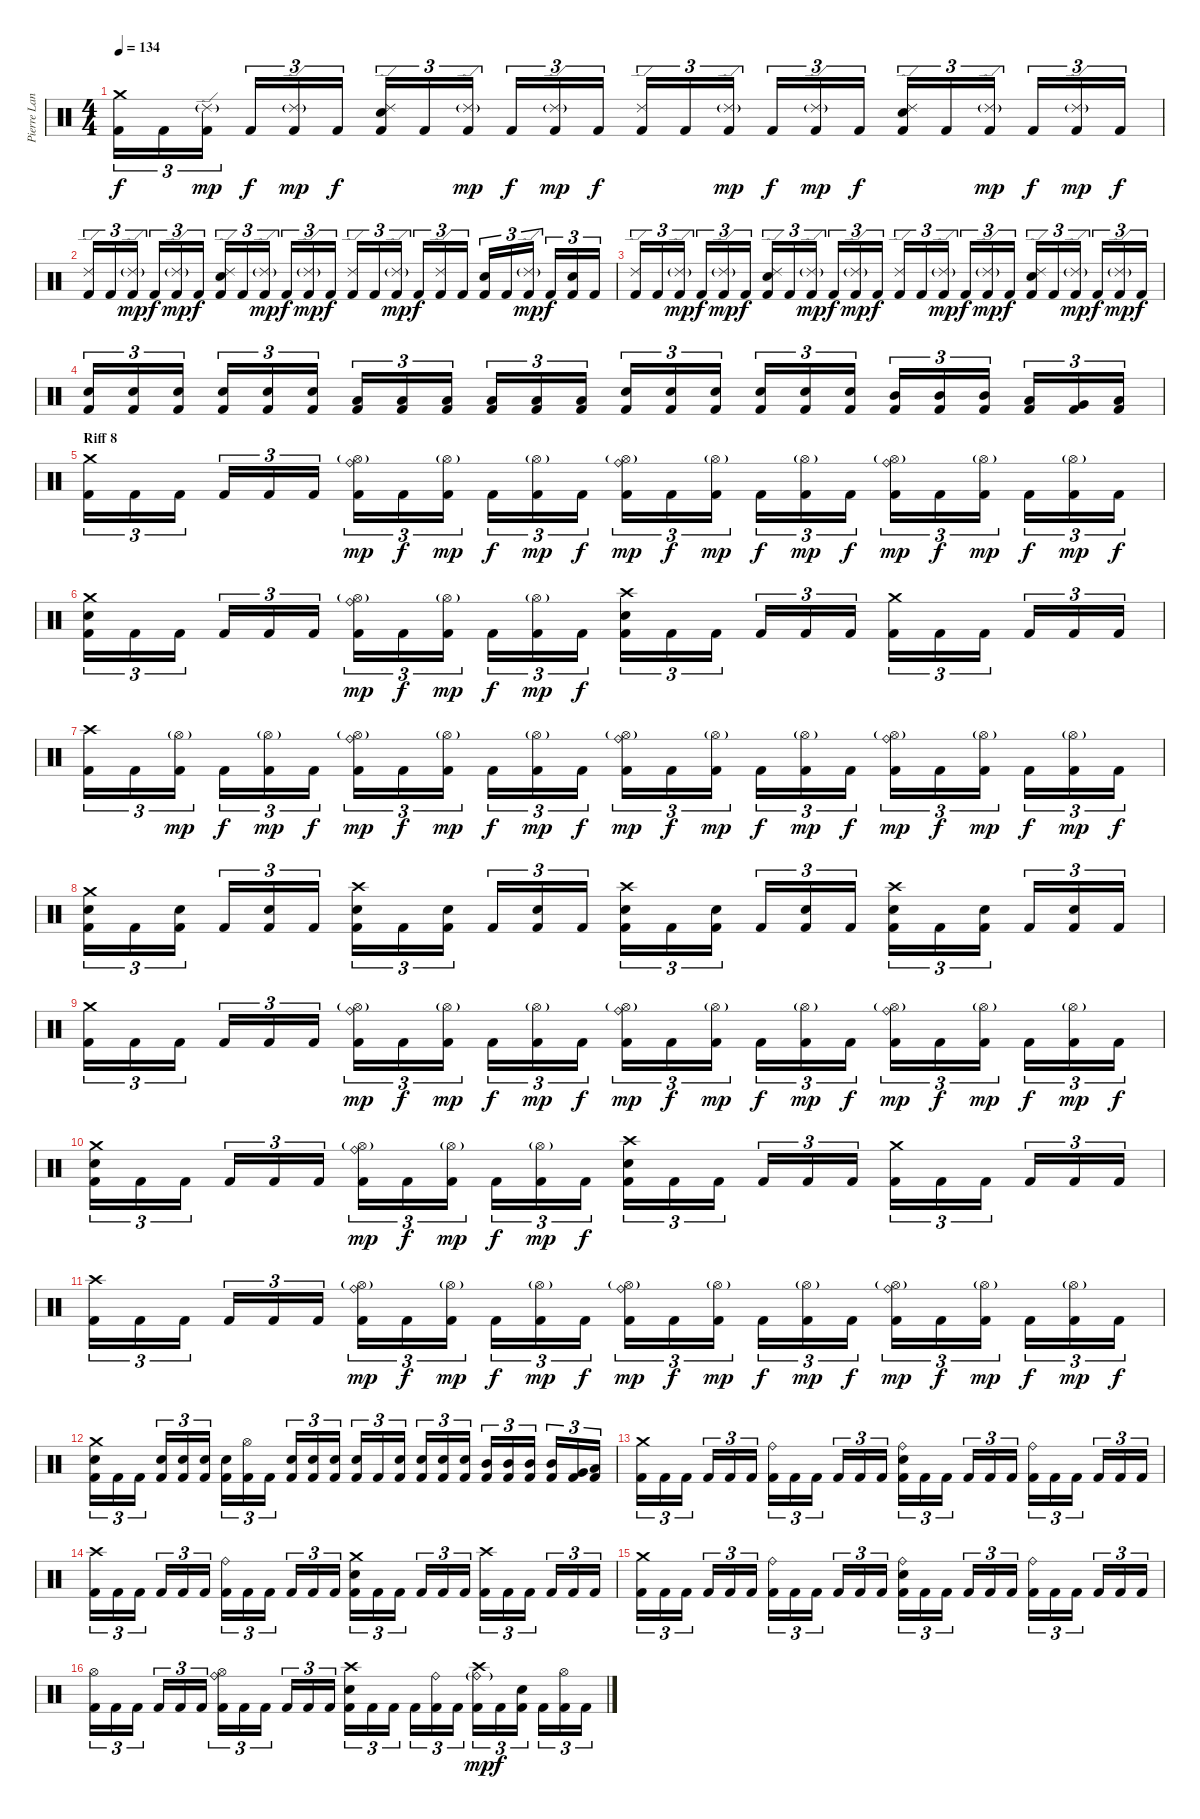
\track ("Pierre Langlois (Drums)" "Pierre Lan") {instrument percussion}
\staff {score}
\articulation defaults
\ts (4 4)
\tempo 134
\clef neutral
\ks c
("Crash medium (hit)" "Kick (hit) 2").16{tu (3 2) dy f} "Kick (hit) 2".16{tu (3 2)} ("Ride (edge) 2"{g} "Kick (hit) 2").16{tu (3 2) dy mp} "Kick (hit) 2".16{tu (3 2) dy f} ("Ride (edge) 2"{g} "Kick (hit) 2").16{tu (3 2) dy mp} "Kick (hit) 2".16{tu (3 2) dy f} ("Ride (edge) 2" "Snare (hit) 2" "Kick (hit) 2").16{tu (3 2)} "Kick (hit) 2".16{tu (3 2)} ("Ride (edge) 2"{g} "Kick (hit) 2").16{tu (3 2) dy mp} "Kick (hit) 2".16{tu (3 2) dy f} ("Ride (edge) 2"{g} "Kick (hit) 2").16{tu (3 2) dy mp} "Kick (hit) 2".16{tu (3 2) dy f} ("Ride (edge) 2" "Kick (hit) 2").16{tu (3 2)} "Kick (hit) 2".16{tu (3 2)} ("Ride (edge) 2"{g} "Kick (hit) 2").16{tu (3 2) dy mp} "Kick (hit) 2".16{tu (3 2) dy f} ("Ride (edge) 2"{g} "Kick (hit) 2").16{tu (3 2) dy mp} "Kick (hit) 2".16{tu (3 2) dy f} ("Snare (hit) 2" "Ride (edge) 2" "Kick (hit) 2").16{tu (3 2)} "Kick (hit) 2".16{tu (3 2)} ("Ride (edge) 2"{g} "Kick (hit) 2").16{tu (3 2) dy mp} "Kick (hit) 2".16{tu (3 2) dy f} ("Ride (edge) 2"{g} "Kick (hit) 2").16{tu (3 2) dy mp} "Kick (hit) 2".16{tu (3 2) dy f} |
("Ride (edge) 2" "Kick (hit) 2").16{tu (3 2)} "Kick (hit) 2".16{tu (3 2)} ("Ride (edge) 2"{g} "Kick (hit) 2").16{tu (3 2) dy mp} "Kick (hit) 2".16{tu (3 2) dy f} ("Ride (edge) 2"{g} "Kick (hit) 2").16{tu (3 2) dy mp} "Kick (hit) 2".16{tu (3 2) dy f} ("Ride (edge) 2" "Snare (hit) 2" "Kick (hit) 2").16{tu (3 2)} "Kick (hit) 2".16{tu (3 2)} ("Ride (edge) 2"{g} "Kick (hit) 2").16{tu (3 2) dy mp} "Kick (hit) 2".16{tu (3 2) dy f} ("Ride (edge) 2"{g} "Kick (hit) 2").16{tu (3 2) dy mp} "Kick (hit) 2".16{tu (3 2) dy f} ("Ride (edge) 2" "Kick (hit) 2").16{tu (3 2)} "Kick (hit) 2".16{tu (3 2)} ("Ride (edge) 2"{g} "Kick (hit) 2").16{tu (3 2) dy mp} "Kick (hit) 2".16{tu (3 2) dy f} ("Ride (edge) 2" "Kick (hit) 2").16{tu (3 2)} "Kick (hit) 2".16{tu (3 2)} ("Snare (hit) 2" "Kick (hit) 2").16{tu (3 2)} "Kick (hit) 2".16{tu (3 2)} ("Ride (edge) 2"{g} "Kick (hit) 2").16{tu (3 2) dy mp} "Kick (hit) 2".16{tu (3 2) dy f} ("Snare (hit) 2" "Kick (hit) 2").16{tu (3 2)} "Kick (hit) 2".16{tu (3 2)} |
("Ride (edge) 2" "Kick (hit) 2").16{tu (3 2)} "Kick (hit) 2".16{tu (3 2)} ("Ride (edge) 2"{g} "Kick (hit) 2").16{tu (3 2) dy mp} "Kick (hit) 2".16{tu (3 2) dy f} ("Ride (edge) 2"{g} "Kick (hit) 2").16{tu (3 2) dy mp} "Kick (hit) 2".16{tu (3 2) dy f} ("Ride (edge) 2" "Snare (hit) 2" "Kick (hit) 2").16{tu (3 2)} "Kick (hit) 2".16{tu (3 2)} ("Ride (edge) 2"{g} "Kick (hit) 2").16{tu (3 2) dy mp} "Kick (hit) 2".16{tu (3 2) dy f} ("Ride (edge) 2"{g} "Kick (hit) 2").16{tu (3 2) dy mp} "Kick (hit) 2".16{tu (3 2) dy f} ("Ride (edge) 2" "Kick (hit) 2").16{tu (3 2)} "Kick (hit) 2".16{tu (3 2)} ("Ride (edge) 2"{g} "Kick (hit) 2").16{tu (3 2) dy mp} "Kick (hit) 2".16{tu (3 2) dy f} ("Ride (edge) 2"{g} "Kick (hit) 2").16{tu (3 2) dy mp} "Kick (hit) 2".16{tu (3 2) dy f} ("Snare (hit) 2" "Ride (edge) 2" "Kick (hit) 2").16{tu (3 2)} "Kick (hit) 2".16{tu (3 2)} ("Ride (edge) 2"{g} "Kick (hit) 2").16{tu (3 2) dy mp} "Kick (hit) 2".16{tu (3 2) dy f} ("Ride (edge) 2"{g} "Kick (hit) 2").16{tu (3 2) dy mp} "Kick (hit) 2".16{tu (3 2) dy f} |
("Snare (hit) 2" "Kick (hit) 2").16{tu (3 2)} ("Snare (hit) 2" "Kick (hit) 2").16{tu (3 2)} ("Snare (hit) 2" "Kick (hit) 2").16{tu (3 2)} ("Snare (hit) 2" "Kick (hit) 2").16{tu (3 2)} ("Snare (hit) 2" "Kick (hit) 2").16{tu (3 2)} ("Snare (hit) 2" "Kick (hit) 2").16{tu (3 2)} ("Low Tom (hit)" "Kick (hit) 2").16{tu (3 2)} ("Low Tom (hit)" "Kick (hit) 2").16{tu (3 2)} ("Low Tom (hit)" "Kick (hit) 2").16{tu (3 2)} ("Low Tom (hit)" "Kick (hit) 2").16{tu (3 2)} ("Low Tom (hit)" "Kick (hit) 2").16{tu (3 2)} ("Low Tom (hit)" "Kick (hit) 2").16{tu (3 2)} ("Snare (hit) 2" "Kick (hit) 2").16{tu (3 2)} ("Snare (hit) 2" "Kick (hit) 2").16{tu (3 2)} ("Snare (hit) 2" "Kick (hit) 2").16{tu (3 2)} ("Snare (hit) 2" "Kick (hit) 2").16{tu (3 2)} ("Snare (hit) 2" "Kick (hit) 2").16{tu (3 2)} ("Snare (hit) 2" "Kick (hit) 2").16{tu (3 2)} ("Mid Tom (hit)" "Kick (hit) 2").16{tu (3 2)} ("Mid Tom (hit)" "Kick (hit) 2").16{tu (3 2)} ("Mid Tom (hit)" "Kick (hit) 2").16{tu (3 2)} ("Low Tom (hit)" "Kick (hit) 2").16{tu (3 2)} ("Very Low Tom (hit)" "Kick (hit) 2").16{tu (3 2)} ("Low Floor Tom (hit)" "Kick (hit) 2").16{tu (3 2)} |
\section ("" "Riff 8")
("Crash medium (hit)" "Kick (hit) 2").16{tu (3 2)} "Kick (hit) 2".16{tu (3 2)} "Kick (hit) 2".16{tu (3 2)} "Kick (hit) 2".16{tu (3 2)} "Kick (hit) 2".16{tu (3 2)} "Kick (hit) 2".16{tu (3 2)} ("Ride (bell)" "Hi-Hat (open)"{g} "Kick (hit) 2").16{tu (3 2) dy mp} "Kick (hit) 2".16{tu (3 2) dy f} ("Hi-Hat (open)"{g} "Kick (hit) 2").16{tu (3 2) dy mp} "Kick (hit) 2".16{tu (3 2) dy f} ("Hi-Hat (open)"{g} "Kick (hit) 2").16{tu (3 2) dy mp} "Kick (hit) 2".16{tu (3 2) dy f} ("Ride (bell)" "Hi-Hat (open)"{g} "Kick (hit) 2").16{tu (3 2) dy mp} "Kick (hit) 2".16{tu (3 2) dy f} ("Hi-Hat (open)"{g} "Kick (hit) 2").16{tu (3 2) dy mp} "Kick (hit) 2".16{tu (3 2) dy f} ("Hi-Hat (open)"{g} "Kick (hit) 2").16{tu (3 2) dy mp} "Kick (hit) 2".16{tu (3 2) dy f} ("Ride (bell)" "Hi-Hat (open)"{g} "Kick (hit) 2").16{tu (3 2) dy mp} "Kick (hit) 2".16{tu (3 2) dy f} ("Hi-Hat (open)"{g} "Kick (hit) 2").16{tu (3 2) dy mp} "Kick (hit) 2".16{tu (3 2) dy f} ("Hi-Hat (open)"{g} "Kick (hit) 2").16{tu (3 2) dy mp} "Kick (hit) 2".16{tu (3 2) dy f} |
("Crash medium (hit)" "Snare (hit) 2" "Kick (hit) 2").16{tu (3 2)} "Kick (hit) 2".16{tu (3 2)} "Kick (hit) 2".16{tu (3 2)} "Kick (hit) 2".16{tu (3 2)} "Kick (hit) 2".16{tu (3 2)} "Kick (hit) 2".16{tu (3 2)} ("Ride (bell)" "Hi-Hat (open)"{g} "Kick (hit) 2").16{tu (3 2) dy mp} "Kick (hit) 2".16{tu (3 2) dy f} ("Hi-Hat (open)"{g} "Kick (hit) 2").16{tu (3 2) dy mp} "Kick (hit) 2".16{tu (3 2) dy f} ("Hi-Hat (open)"{g} "Kick (hit) 2").16{tu (3 2) dy mp} "Kick (hit) 2".16{tu (3 2) dy f} ("Crash high (hit)" "Snare (hit) 2" "Kick (hit) 2").16{tu (3 2)} "Kick (hit) 2".16{tu (3 2)} "Kick (hit) 2".16{tu (3 2)} "Kick (hit) 2".16{tu (3 2)} "Kick (hit) 2".16{tu (3 2)} "Kick (hit) 2".16{tu (3 2)} ("Crash medium (hit)" "Kick (hit) 2").16{tu (3 2)} "Kick (hit) 2".16{tu (3 2)} "Kick (hit) 2".16{tu (3 2)} "Kick (hit) 2".16{tu (3 2)} "Kick (hit) 2".16{tu (3 2)} "Kick (hit) 2".16{tu (3 2)} |
("Crash high (hit)" "Kick (hit) 2").16{tu (3 2)} "Kick (hit) 2".16{tu (3 2)} ("Hi-Hat (open)"{g} "Kick (hit) 2").16{tu (3 2) dy mp} "Kick (hit) 2".16{tu (3 2) dy f} ("Hi-Hat (open)"{g} "Kick (hit) 2").16{tu (3 2) dy mp} "Kick (hit) 2".16{tu (3 2) dy f} ("Ride (bell)" "Hi-Hat (open)"{g} "Kick (hit) 2").16{tu (3 2) dy mp} "Kick (hit) 2".16{tu (3 2) dy f} ("Hi-Hat (open)"{g} "Kick (hit) 2").16{tu (3 2) dy mp} "Kick (hit) 2".16{tu (3 2) dy f} ("Hi-Hat (open)"{g} "Kick (hit) 2").16{tu (3 2) dy mp} "Kick (hit) 2".16{tu (3 2) dy f} ("Ride (bell)" "Hi-Hat (open)"{g} "Kick (hit) 2").16{tu (3 2) dy mp} "Kick (hit) 2".16{tu (3 2) dy f} ("Hi-Hat (open)"{g} "Kick (hit) 2").16{tu (3 2) dy mp} "Kick (hit) 2".16{tu (3 2) dy f} ("Hi-Hat (open)"{g} "Kick (hit) 2").16{tu (3 2) dy mp} "Kick (hit) 2".16{tu (3 2) dy f} ("Ride (bell)" "Hi-Hat (open)"{g} "Kick (hit) 2").16{tu (3 2) dy mp} "Kick (hit) 2".16{tu (3 2) dy f} ("Hi-Hat (open)"{g} "Kick (hit) 2").16{tu (3 2) dy mp} "Kick (hit) 2".16{tu (3 2) dy f} ("Hi-Hat (open)"{g} "Kick (hit) 2").16{tu (3 2) dy mp} "Kick (hit) 2".16{tu (3 2) dy f} |
("Snare (hit) 2" "Crash medium (hit)" "Kick (hit) 2").16{tu (3 2)} "Kick (hit) 2".16{tu (3 2)} ("Snare (hit) 2" "Kick (hit) 2").16{tu (3 2)} "Kick (hit) 2".16{tu (3 2)} ("Snare (hit) 2" "Kick (hit) 2").16{tu (3 2)} "Kick (hit) 2".16{tu (3 2)} ("Crash high (hit)" "Snare (hit) 2" "Kick (hit) 2").16{tu (3 2)} "Kick (hit) 2".16{tu (3 2)} ("Snare (hit) 2" "Kick (hit) 2").16{tu (3 2)} "Kick (hit) 2".16{tu (3 2)} ("Snare (hit) 2" "Kick (hit) 2").16{tu (3 2)} "Kick (hit) 2".16{tu (3 2)} ("Snare (hit) 2" "Crash high (hit)" "Kick (hit) 2").16{tu (3 2)} "Kick (hit) 2".16{tu (3 2)} ("Snare (hit) 2" "Kick (hit) 2").16{tu (3 2)} "Kick (hit) 2".16{tu (3 2)} ("Snare (hit) 2" "Kick (hit) 2").16{tu (3 2)} "Kick (hit) 2".16{tu (3 2)} ("Snare (hit) 2" "Crash high (hit)" "Kick (hit) 2").16{tu (3 2)} "Kick (hit) 2".16{tu (3 2)} ("Snare (hit) 2" "Kick (hit) 2").16{tu (3 2)} "Kick (hit) 2".16{tu (3 2)} ("Snare (hit) 2" "Kick (hit) 2").16{tu (3 2)} "Kick (hit) 2".16{tu (3 2)} |
("Crash medium (hit)" "Kick (hit) 2").16{tu (3 2)} "Kick (hit) 2".16{tu (3 2)} "Kick (hit) 2".16{tu (3 2)} "Kick (hit) 2".16{tu (3 2)} "Kick (hit) 2".16{tu (3 2)} "Kick (hit) 2".16{tu (3 2)} ("Ride (bell)" "Hi-Hat (open)"{g} "Kick (hit) 2").16{tu (3 2) dy mp} "Kick (hit) 2".16{tu (3 2) dy f} ("Hi-Hat (open)"{g} "Kick (hit) 2").16{tu (3 2) dy mp} "Kick (hit) 2".16{tu (3 2) dy f} ("Hi-Hat (open)"{g} "Kick (hit) 2").16{tu (3 2) dy mp} "Kick (hit) 2".16{tu (3 2) dy f} ("Ride (bell)" "Hi-Hat (open)"{g} "Kick (hit) 2").16{tu (3 2) dy mp} "Kick (hit) 2".16{tu (3 2) dy f} ("Hi-Hat (open)"{g} "Kick (hit) 2").16{tu (3 2) dy mp} "Kick (hit) 2".16{tu (3 2) dy f} ("Hi-Hat (open)"{g} "Kick (hit) 2").16{tu (3 2) dy mp} "Kick (hit) 2".16{tu (3 2) dy f} ("Ride (bell)" "Hi-Hat (open)"{g} "Kick (hit) 2").16{tu (3 2) dy mp} "Kick (hit) 2".16{tu (3 2) dy f} ("Hi-Hat (open)"{g} "Kick (hit) 2").16{tu (3 2) dy mp} "Kick (hit) 2".16{tu (3 2) dy f} ("Hi-Hat (open)"{g} "Kick (hit) 2").16{tu (3 2) dy mp} "Kick (hit) 2".16{tu (3 2) dy f} |
("Crash medium (hit)" "Snare (hit) 2" "Kick (hit) 2").16{tu (3 2)} "Kick (hit) 2".16{tu (3 2)} "Kick (hit) 2".16{tu (3 2)} "Kick (hit) 2".16{tu (3 2)} "Kick (hit) 2".16{tu (3 2)} "Kick (hit) 2".16{tu (3 2)} ("Ride (bell)" "Hi-Hat (open)"{g} "Kick (hit) 2").16{tu (3 2) dy mp} "Kick (hit) 2".16{tu (3 2) dy f} ("Hi-Hat (open)"{g} "Kick (hit) 2").16{tu (3 2) dy mp} "Kick (hit) 2".16{tu (3 2) dy f} ("Hi-Hat (open)"{g} "Kick (hit) 2").16{tu (3 2) dy mp} "Kick (hit) 2".16{tu (3 2) dy f} ("Crash high (hit)" "Snare (hit) 2" "Kick (hit) 2").16{tu (3 2)} "Kick (hit) 2".16{tu (3 2)} "Kick (hit) 2".16{tu (3 2)} "Kick (hit) 2".16{tu (3 2)} "Kick (hit) 2".16{tu (3 2)} "Kick (hit) 2".16{tu (3 2)} ("Crash medium (hit)" "Kick (hit) 2").16{tu (3 2)} "Kick (hit) 2".16{tu (3 2)} "Kick (hit) 2".16{tu (3 2)} "Kick (hit) 2".16{tu (3 2)} "Kick (hit) 2".16{tu (3 2)} "Kick (hit) 2".16{tu (3 2)} |
("Crash high (hit)" "Kick (hit) 2").16{tu (3 2)} "Kick (hit) 2".16{tu (3 2)} "Kick (hit) 2".16{tu (3 2)} "Kick (hit) 2".16{tu (3 2)} "Kick (hit) 2".16{tu (3 2)} "Kick (hit) 2".16{tu (3 2)} ("Ride (bell)" "Hi-Hat (open)"{g} "Kick (hit) 2").16{tu (3 2) dy mp} "Kick (hit) 2".16{tu (3 2) dy f} ("Hi-Hat (open)"{g} "Kick (hit) 2").16{tu (3 2) dy mp} "Kick (hit) 2".16{tu (3 2) dy f} ("Hi-Hat (open)"{g} "Kick (hit) 2").16{tu (3 2) dy mp} "Kick (hit) 2".16{tu (3 2) dy f} ("Ride (bell)" "Hi-Hat (open)"{g} "Kick (hit) 2").16{tu (3 2) dy mp} "Kick (hit) 2".16{tu (3 2) dy f} ("Hi-Hat (open)"{g} "Kick (hit) 2").16{tu (3 2) dy mp} "Kick (hit) 2".16{tu (3 2) dy f} ("Hi-Hat (open)"{g} "Kick (hit) 2").16{tu (3 2) dy mp} "Kick (hit) 2".16{tu (3 2) dy f} ("Ride (bell)" "Hi-Hat (open)"{g} "Kick (hit) 2").16{tu (3 2) dy mp} "Kick (hit) 2".16{tu (3 2) dy f} ("Hi-Hat (open)"{g} "Kick (hit) 2").16{tu (3 2) dy mp} "Kick (hit) 2".16{tu (3 2) dy f} ("Hi-Hat (open)"{g} "Kick (hit) 2").16{tu (3 2) dy mp} "Kick (hit) 2".16{tu (3 2) dy f} |
("Snare (hit) 2" "Crash medium (hit)" "Kick (hit) 2").16{tu (3 2)} "Kick (hit) 2".16{tu (3 2)} "Kick (hit) 2".16{tu (3 2)} ("Snare (hit) 2" "Kick (hit) 2").16{tu (3 2)} ("Snare (hit) 2" "Kick (hit) 2").16{tu (3 2)} ("Snare (hit) 2" "Kick (hit) 2").16{tu (3 2)} ("Snare (hit) 2" "Kick (hit) 2").16{tu (3 2)} ("Hi-Hat (open)" "Kick (hit) 2").16{tu (3 2)} "Kick (hit) 2".16{tu (3 2)} ("Snare (hit) 2" "Kick (hit) 2").16{tu (3 2)} ("Snare (hit) 2" "Kick (hit) 2").16{tu (3 2)} ("Snare (hit) 2" "Kick (hit) 2").16{tu (3 2)} ("Snare (hit) 2" "Kick (hit) 2").16{tu (3 2)} "Kick (hit) 2".16{tu (3 2)} ("Snare (hit) 2" "Kick (hit) 2").16{tu (3 2)} ("Snare (hit) 2" "Kick (hit) 2").16{tu (3 2)} ("Snare (hit) 2" "Kick (hit) 2").16{tu (3 2)} ("Snare (hit) 2" "Kick (hit) 2").16{tu (3 2)} ("Mid Tom (hit)" "Kick (hit) 2").16{tu (3 2)} ("Mid Tom (hit)" "Kick (hit) 2").16{tu (3 2)} ("Mid Tom (hit)" "Kick (hit) 2").16{tu (3 2)} ("Mid Tom (hit)" "Kick (hit) 2").16{tu (3 2)} ("Very Low Tom (hit)" "Kick (hit) 2").16{tu (3 2)} ("Low Floor Tom (hit)" "Kick (hit) 2").16{tu (3 2)} |
("Crash medium (hit)" "Kick (hit) 2").16{tu (3 2)} "Kick (hit) 2".16{tu (3 2)} "Kick (hit) 2".16{tu (3 2)} "Kick (hit) 2".16{tu (3 2)} "Kick (hit) 2".16{tu (3 2)} "Kick (hit) 2".16{tu (3 2)} ("Ride (bell)" "Kick (hit) 2").16{tu (3 2)} "Kick (hit) 2".16{tu (3 2)} "Kick (hit) 2".16{tu (3 2)} "Kick (hit) 2".16{tu (3 2)} "Kick (hit) 2".16{tu (3 2)} "Kick (hit) 2".16{tu (3 2)} ("Ride (bell)" "Snare (hit) 2" "Kick (hit) 2").16{tu (3 2)} "Kick (hit) 2".16{tu (3 2)} "Kick (hit) 2".16{tu (3 2)} "Kick (hit) 2".16{tu (3 2)} "Kick (hit) 2".16{tu (3 2)} "Kick (hit) 2".16{tu (3 2)} ("Ride (bell)" "Kick (hit) 2").16{tu (3 2)} "Kick (hit) 2".16{tu (3 2)} "Kick (hit) 2".16{tu (3 2)} "Kick (hit) 2".16{tu (3 2)} "Kick (hit) 2".16{tu (3 2)} "Kick (hit) 2".16{tu (3 2)} |
("Crash high (hit)" "Kick (hit) 2").16{tu (3 2)} "Kick (hit) 2".16{tu (3 2)} "Kick (hit) 2".16{tu (3 2)} "Kick (hit) 2".16{tu (3 2)} "Kick (hit) 2".16{tu (3 2)} "Kick (hit) 2".16{tu (3 2)} ("Ride (bell)" "Kick (hit) 2").16{tu (3 2)} "Kick (hit) 2".16{tu (3 2)} "Kick (hit) 2".16{tu (3 2)} "Kick (hit) 2".16{tu (3 2)} "Kick (hit) 2".16{tu (3 2)} "Kick (hit) 2".16{tu (3 2)} ("Crash medium (hit)" "Snare (hit) 2" "Kick (hit) 2").16{tu (3 2)} "Kick (hit) 2".16{tu (3 2)} "Kick (hit) 2".16{tu (3 2)} "Kick (hit) 2".16{tu (3 2)} "Kick (hit) 2".16{tu (3 2)} "Kick (hit) 2".16{tu (3 2)} ("Crash high (hit)" "Kick (hit) 2").16{tu (3 2)} "Kick (hit) 2".16{tu (3 2)} "Kick (hit) 2".16{tu (3 2)} "Kick (hit) 2".16{tu (3 2)} "Kick (hit) 2".16{tu (3 2)} "Kick (hit) 2".16{tu (3 2)} |
("Crash medium (hit)" "Kick (hit) 2").16{tu (3 2)} "Kick (hit) 2".16{tu (3 2)} "Kick (hit) 2".16{tu (3 2)} "Kick (hit) 2".16{tu (3 2)} "Kick (hit) 2".16{tu (3 2)} "Kick (hit) 2".16{tu (3 2)} ("Ride (bell)" "Kick (hit) 2").16{tu (3 2)} "Kick (hit) 2".16{tu (3 2)} "Kick (hit) 2".16{tu (3 2)} "Kick (hit) 2".16{tu (3 2)} "Kick (hit) 2".16{tu (3 2)} "Kick (hit) 2".16{tu (3 2)} ("Ride (bell)" "Snare (hit) 2" "Kick (hit) 2").16{tu (3 2)} "Kick (hit) 2".16{tu (3 2)} "Kick (hit) 2".16{tu (3 2)} "Kick (hit) 2".16{tu (3 2)} "Kick (hit) 2".16{tu (3 2)} "Kick (hit) 2".16{tu (3 2)} ("Ride (bell)" "Kick (hit) 2").16{tu (3 2)} "Kick (hit) 2".16{tu (3 2)} "Kick (hit) 2".16{tu (3 2)} "Kick (hit) 2".16{tu (3 2)} "Kick (hit) 2".16{tu (3 2)} "Kick (hit) 2".16{tu (3 2)} |
("Hi-Hat (open)" "Kick (hit) 2").16{tu (3 2)} "Kick (hit) 2".16{tu (3 2)} "Kick (hit) 2".16{tu (3 2)} "Kick (hit) 2".16{tu (3 2)} "Kick (hit) 2".16{tu (3 2)} "Kick (hit) 2".16{tu (3 2)} ("Hi-Hat (open)" "Ride (bell)" "Kick (hit) 2").16{tu (3 2)} "Kick (hit) 2".16{tu (3 2)} "Kick (hit) 2".16{tu (3 2)} "Kick (hit) 2".16{tu (3 2)} "Kick (hit) 2".16{tu (3 2)} "Kick (hit) 2".16{tu (3 2)} ("Crash high (hit)" "Snare (hit) 2" "Kick (hit) 2").16{tu (3 2)} "Kick (hit) 2".16{tu (3 2)} "Kick (hit) 2".16{tu (3 2)} "Kick (hit) 2".16{tu (3 2)} ("Ride (bell)" "Kick (hit) 2").16{tu (3 2)} "Kick (hit) 2".16{tu (3 2)} ("Ride (bell)"{g} "Crash high (hit)" "Kick (hit) 2").16{tu (3 2) dy mp} "Kick (hit) 2".16{tu (3 2) dy f} ("Snare (hit) 2" "Kick (hit) 2").16{tu (3 2)} "Kick (hit) 2".16{tu (3 2)} ("Hi-Hat (open)" "Kick (hit) 2").16{tu (3 2)} "Kick (hit) 2".16{tu (3 2)}
